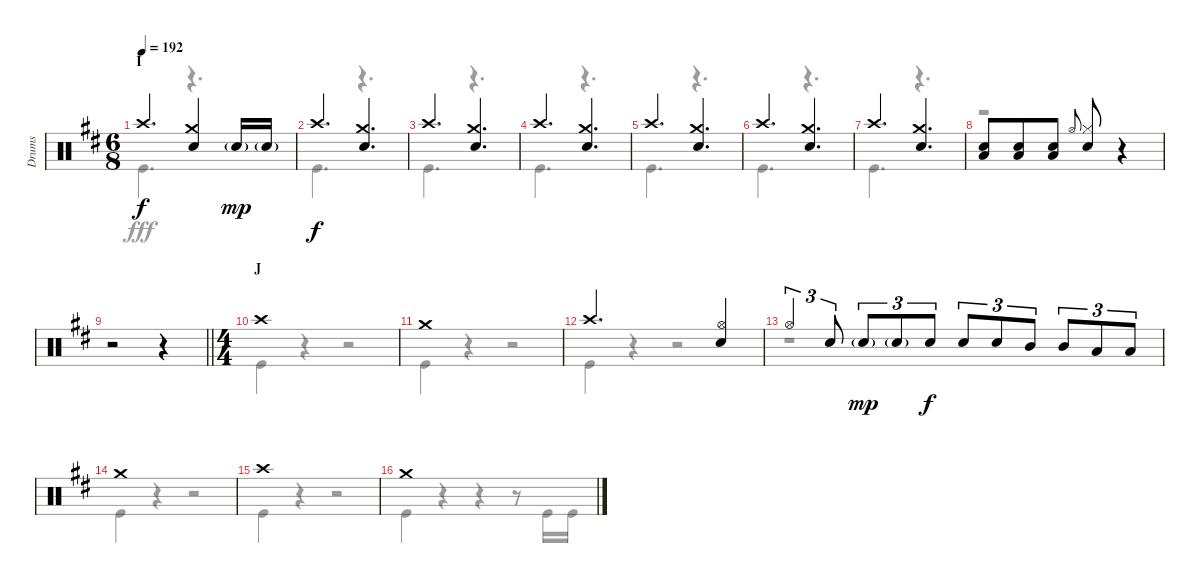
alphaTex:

\track ("Drums" "Drums") {instrument percussion}
\staff {score}
\articulation defaults
\voice
\ts (6 8)
\section ("" "I")
\tempo 192
\clef neutral
\ks d "Crash high (hit)".4{d dy f}
("Crash medium (hit)" "Snare (hit) 2").4 "Snare (hit)"{g}.16{dy mp} "Snare (hit) 2"{g}.16 |
"Crash high (hit)".4{d dy f} ("Crash medium (hit)" "Snare (hit) 2").4{d} |
"Crash high (hit)".4{d} ("Crash medium (hit)" "Snare (hit) 2").4{d} |
"Crash high (hit)".4{d} ("Crash medium (hit)" "Snare (hit) 2").4{d} |
"Crash high (hit)".4{d} ("Crash medium (hit)" "Snare (hit) 2").4{d} |
"Crash high (hit)".4{d} ("Crash medium (hit)" "Snare (hit) 2").4{d} |
"Crash high (hit)".4{d} ("Crash medium (hit)" "Snare (hit) 2").4{d} |
("Snare (hit) 2" "Low Tom (hit)").8 ("Snare (hit) 2" "Low Tom (hit)").8 ("Snare (hit) 2" "Low Tom (hit)").8 "Hi-Hat (open)".8{gr onbeat} ("Hi-Hat (closed)" "Snare (hit) 2").8 r.4 |
\barLineRight lightlight
r.2 r.4 |
\ts (4 4)
\section ("" "J")
"Crash high (hit)".1 |
"Crash medium (hit)".1 |
"Crash high (hit)".2{d} ("Hi-Hat (open)" "Snare (hit) 2").4 |
"Hi-Hat (open)".4{tu (3 2)} "Snare (hit) 2".8{tu (3 2)} "Snare (hit) 2"{g}.8{tu (3 2) dy mp} "Snare (hit) 2"{g}.8{tu (3 2)} "Snare (hit) 2".8{tu (3 2) dy f} "Snare (hit) 2".8{tu (3 2)} "Snare (hit) 2".8{tu (3 2)} "Mid Tom (hit)".8{tu (3 2)} "Mid Tom (hit)".8{tu (3 2)} "Low Tom (hit)".8{tu (3 2)} "Low Tom (hit)".8{tu (3 2)} |
"Crash medium (hit)".1 |
"Crash high (hit)".1 |
"Crash medium (hit)".1
\voice
\clef neutral
\ottava regular
\simile none
\ks d "Kick (hit)".4{d dy fff}
r.4{d} |
"Kick (hit)".4{d} r.4{d} |
"Kick (hit)".4{d} r.4{d} |
"Kick (hit)".4{d} r.4{d} |
"Kick (hit)".4{d} r.4{d} |
"Kick (hit)".4{d} r.4{d} |
"Kick (hit)".4{d} r.4{d} |
r.2 r.4 |
\barLineRight lightlight
r.2 r.4 |
"Kick (hit)".4 r.4 r.2 |
"Kick (hit)".4 r.4 r.2 |
"Kick (hit)".4 r.4 r.2 |
r.1 |
"Kick (hit)".4 r.4 r.2 |
"Kick (hit)".4 r.4 r.2 |
"Kick (hit)".4 r.4 r.4 r.8 "Kick (hit)".16 "Kick (hit)".16
